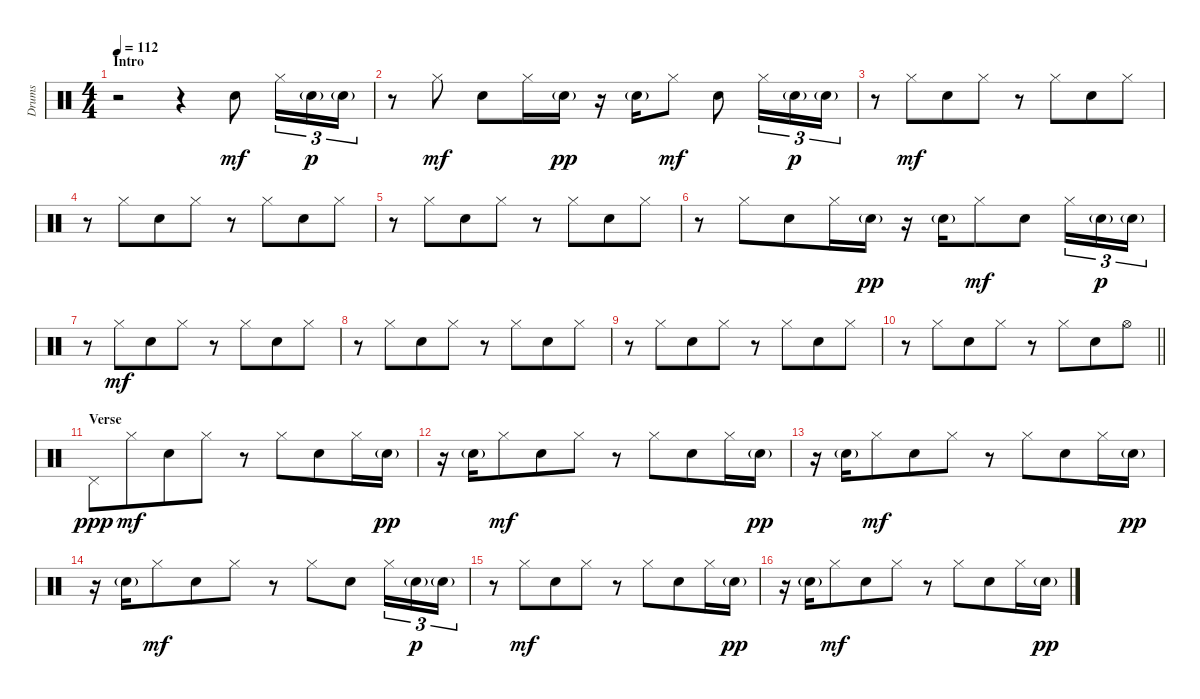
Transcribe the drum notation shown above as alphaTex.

\track ("Drums" "Drums") {instrument percussion}
\staff {score}
\articulation defaults
\ts (4 4)
\section ("" "Intro")
\tempo 112
\clef neutral
\ks c
r.2{dy mf} r.4 "Electric Snare (hit)".8 "Hi-Hat (closed)".16{tu (3 2)} "Electric Snare (hit)"{g}.16{tu (3 2) dy p} "Electric Snare (hit)"{g}.16{tu (3 2)} |
r.8 "Hi-Hat (closed)".8{dy mf} "Electric Snare (hit)".8 "Hi-Hat (closed)".16 "Electric Snare (hit)"{g}.16{dy pp} r.16 "Electric Snare (hit)"{g}.16 "Hi-Hat (closed)".8{dy mf} "Electric Snare (hit)".8 "Hi-Hat (closed)".16{tu (3 2)} "Electric Snare (hit)"{g}.16{tu (3 2) dy p} "Electric Snare (hit)"{g}.16{tu (3 2)} |
r.8 "Hi-Hat (closed)".8{dy mf beam merge} "Electric Snare (hit)".8 "Hi-Hat (closed)".8 r.8 "Hi-Hat (closed)".8{beam merge} "Electric Snare (hit)".8 "Hi-Hat (closed)".8 |
r.8 "Hi-Hat (closed)".8{beam merge} "Electric Snare (hit)".8 "Hi-Hat (closed)".8 r.8 "Hi-Hat (closed)".8{beam merge} "Electric Snare (hit)".8 "Hi-Hat (closed)".8 |
r.8 "Hi-Hat (closed)".8{beam merge} "Electric Snare (hit)".8 "Hi-Hat (closed)".8 r.8 "Hi-Hat (closed)".8{beam merge} "Electric Snare (hit)".8 "Hi-Hat (closed)".8 |
r.8 "Hi-Hat (closed)".8{beam merge} "Electric Snare (hit)".8 "Hi-Hat (closed)".16 "Electric Snare (hit)"{g}.16{dy pp} r.16 "Electric Snare (hit)"{g}.16 "Hi-Hat (closed)".8{dy mf beam merge} "Electric Snare (hit)".8 "Hi-Hat (closed)".16{tu (3 2)} "Electric Snare (hit)"{g}.16{tu (3 2) dy p} "Electric Snare (hit)"{g}.16{tu (3 2)} |
r.8 "Hi-Hat (closed)".8{dy mf beam merge} "Electric Snare (hit)".8 "Hi-Hat (closed)".8 r.8 "Hi-Hat (closed)".8{beam merge} "Electric Snare (hit)".8 "Hi-Hat (closed)".8 |
r.8 "Hi-Hat (closed)".8{beam merge} "Electric Snare (hit)".8 "Hi-Hat (closed)".8 r.8 "Hi-Hat (closed)".8{beam merge} "Electric Snare (hit)".8 "Hi-Hat (closed)".8 |
r.8 "Hi-Hat (closed)".8{beam merge} "Electric Snare (hit)".8 "Hi-Hat (closed)".8 r.8 "Hi-Hat (closed)".8{beam merge} "Electric Snare (hit)".8 "Hi-Hat (closed)".8 |
\barLineRight lightlight
r.8 "Hi-Hat (closed)".8{beam merge} "Electric Snare (hit)".8 "Hi-Hat (closed)".8 r.8 "Hi-Hat (closed)".8{beam merge} "Electric Snare (hit)".8 "Hi-Hat (open)".8 |
\section ("" "Verse")
"Pedal Hi-Hat (hit)".8{dy ppp} "Hi-Hat (closed)".8{dy mf beam merge} "Electric Snare (hit)".8 "Hi-Hat (closed)".8 r.8 "Hi-Hat (closed)".8{beam merge} "Electric Snare (hit)".8 "Hi-Hat (closed)".16 "Electric Snare (hit)"{g}.16{dy pp} |
r.16 "Electric Snare (hit)"{g}.16 "Hi-Hat (closed)".8{dy mf beam merge} "Electric Snare (hit)".8 "Hi-Hat (closed)".8 r.8 "Hi-Hat (closed)".8{beam merge} "Electric Snare (hit)".8 "Hi-Hat (closed)".16 "Electric Snare (hit)"{g}.16{dy pp} |
r.16 "Electric Snare (hit)"{g}.16 "Hi-Hat (closed)".8{dy mf beam merge} "Electric Snare (hit)".8 "Hi-Hat (closed)".8 r.8 "Hi-Hat (closed)".8{beam merge} "Electric Snare (hit)".8 "Hi-Hat (closed)".16 "Electric Snare (hit)"{g}.16{dy pp} |
r.16 "Electric Snare (hit)"{g}.16 "Hi-Hat (closed)".8{dy mf beam merge} "Electric Snare (hit)".8 "Hi-Hat (closed)".8 r.8 "Hi-Hat (closed)".8{beam merge} "Electric Snare (hit)".8 "Hi-Hat (closed)".16{tu (3 2)} "Electric Snare (hit)"{g}.16{tu (3 2) dy p} "Electric Snare (hit)"{g}.16{tu (3 2)} |
r.8 "Hi-Hat (closed)".8{dy mf beam merge} "Electric Snare (hit)".8 "Hi-Hat (closed)".8 r.8 "Hi-Hat (closed)".8{beam merge} "Electric Snare (hit)".8 "Hi-Hat (closed)".16 "Electric Snare (hit)"{g}.16{dy pp} |
r.16 "Electric Snare (hit)"{g}.16 "Hi-Hat (closed)".8{dy mf beam merge} "Electric Snare (hit)".8 "Hi-Hat (closed)".8 r.8 "Hi-Hat (closed)".8{beam merge} "Electric Snare (hit)".8 "Hi-Hat (closed)".16 "Electric Snare (hit)"{g}.16{dy pp}
